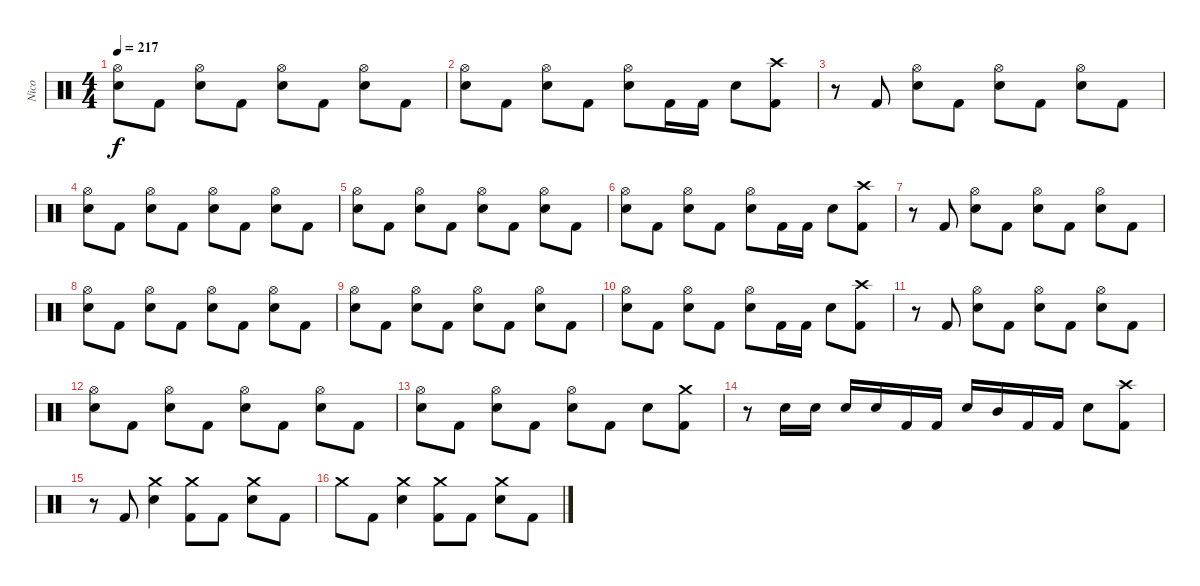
\track ("Nico" "Nico") {instrument percussion}
\staff {score}
\articulation defaults
\ts (4 4)
\tempo 217
\clef neutral
\ks c
("Hi-Hat (open)" "Electric Snare (hit)").8{dy f} "Kick (hit) 2".8 ("Hi-Hat (open)" "Electric Snare (hit)").8 "Kick (hit) 2".8 ("Hi-Hat (open)" "Electric Snare (hit)").8 "Kick (hit) 2".8 ("Hi-Hat (open)" "Electric Snare (hit)").8 "Kick (hit) 2".8 |
("Hi-Hat (open)" "Electric Snare (hit)").8 "Kick (hit) 2".8 ("Hi-Hat (open)" "Electric Snare (hit)").8 "Kick (hit) 2".8 ("Hi-Hat (open)" "Electric Snare (hit)").8 "Kick (hit) 2".16 "Kick (hit) 2".16 "Electric Snare (hit)".8 ("Crash high (hit)" "Kick (hit) 2").8 |
r.8 "Kick (hit) 2".8 ("Hi-Hat (open)" "Electric Snare (hit)").8 "Kick (hit) 2".8 ("Hi-Hat (open)" "Electric Snare (hit)").8 "Kick (hit) 2".8 ("Hi-Hat (open)" "Electric Snare (hit)").8 "Kick (hit) 2".8 |
("Hi-Hat (open)" "Electric Snare (hit)").8 "Kick (hit) 2".8 ("Hi-Hat (open)" "Electric Snare (hit)").8 "Kick (hit) 2".8 ("Hi-Hat (open)" "Electric Snare (hit)").8 "Kick (hit) 2".8 ("Hi-Hat (open)" "Electric Snare (hit)").8 "Kick (hit) 2".8 |
("Hi-Hat (open)" "Electric Snare (hit)").8 "Kick (hit) 2".8 ("Hi-Hat (open)" "Electric Snare (hit)").8 "Kick (hit) 2".8 ("Hi-Hat (open)" "Electric Snare (hit)").8 "Kick (hit) 2".8 ("Hi-Hat (open)" "Electric Snare (hit)").8 "Kick (hit) 2".8 |
("Hi-Hat (open)" "Electric Snare (hit)").8 "Kick (hit) 2".8 ("Hi-Hat (open)" "Electric Snare (hit)").8 "Kick (hit) 2".8 ("Hi-Hat (open)" "Electric Snare (hit)").8 "Kick (hit) 2".16 "Kick (hit) 2".16 "Electric Snare (hit)".8 ("Crash high (hit)" "Kick (hit) 2").8 |
r.8 "Kick (hit) 2".8 ("Hi-Hat (open)" "Electric Snare (hit)").8 "Kick (hit) 2".8 ("Hi-Hat (open)" "Electric Snare (hit)").8 "Kick (hit) 2".8 ("Hi-Hat (open)" "Electric Snare (hit)").8 "Kick (hit) 2".8 |
("Hi-Hat (open)" "Electric Snare (hit)").8 "Kick (hit) 2".8 ("Hi-Hat (open)" "Electric Snare (hit)").8 "Kick (hit) 2".8 ("Hi-Hat (open)" "Electric Snare (hit)").8 "Kick (hit) 2".8 ("Hi-Hat (open)" "Electric Snare (hit)").8 "Kick (hit) 2".8 |
("Hi-Hat (open)" "Electric Snare (hit)").8 "Kick (hit) 2".8 ("Hi-Hat (open)" "Electric Snare (hit)").8 "Kick (hit) 2".8 ("Hi-Hat (open)" "Electric Snare (hit)").8 "Kick (hit) 2".8 ("Hi-Hat (open)" "Electric Snare (hit)").8 "Kick (hit) 2".8 |
("Hi-Hat (open)" "Electric Snare (hit)").8 "Kick (hit) 2".8 ("Hi-Hat (open)" "Electric Snare (hit)").8 "Kick (hit) 2".8 ("Hi-Hat (open)" "Electric Snare (hit)").8 "Kick (hit) 2".16 "Kick (hit) 2".16 "Electric Snare (hit)".8 ("Crash high (hit)" "Kick (hit) 2").8 |
r.8 "Kick (hit) 2".8 ("Hi-Hat (open)" "Electric Snare (hit)").8 "Kick (hit) 2".8 ("Hi-Hat (open)" "Electric Snare (hit)").8 "Kick (hit) 2".8 ("Hi-Hat (open)" "Electric Snare (hit)").8 "Kick (hit) 2".8 |
("Hi-Hat (open)" "Electric Snare (hit)").8 "Kick (hit) 2".8 ("Hi-Hat (open)" "Electric Snare (hit)").8 "Kick (hit) 2".8 ("Hi-Hat (open)" "Electric Snare (hit)").8 "Kick (hit) 2".8 ("Hi-Hat (open)" "Electric Snare (hit)").8 "Kick (hit) 2".8 |
("Hi-Hat (open)" "Electric Snare (hit)").8 "Kick (hit) 2".8 ("Hi-Hat (open)" "Electric Snare (hit)").8 "Kick (hit) 2".8 ("Hi-Hat (open)" "Electric Snare (hit)").8 "Kick (hit) 2".8 "Electric Snare (hit)".8 ("Crash medium (hit)" "Kick (hit) 2").8 |
r.8 "Electric Snare (hit)".16 "Electric Snare (hit)".16 "Electric Snare (hit)".16 "Electric Snare (hit)".16 "Kick (hit) 2".16 "Kick (hit) 2".16 "Electric Snare (hit)".16 "Mid Tom (hit)".16 "Kick (hit) 2".16 "Kick (hit) 2".16 "Electric Snare (hit)".8 ("Crash high (hit)" "Kick (hit) 2").8 |
r.8 "Kick (hit) 2".8 ("Crash medium (hit)" "Electric Snare (hit)").4 ("Crash medium (hit)" "Kick (hit) 2").8 "Kick (hit) 2".8 ("Crash medium (hit)" "Electric Snare (hit)").8 "Kick (hit) 2".8 |
"Crash medium (hit)".8 "Kick (hit) 2".8 ("Crash medium (hit)" "Electric Snare (hit)").4 ("Crash medium (hit)" "Kick (hit) 2").8 "Kick (hit) 2".8 ("Crash medium (hit)" "Electric Snare (hit)").8 "Kick (hit) 2".8
